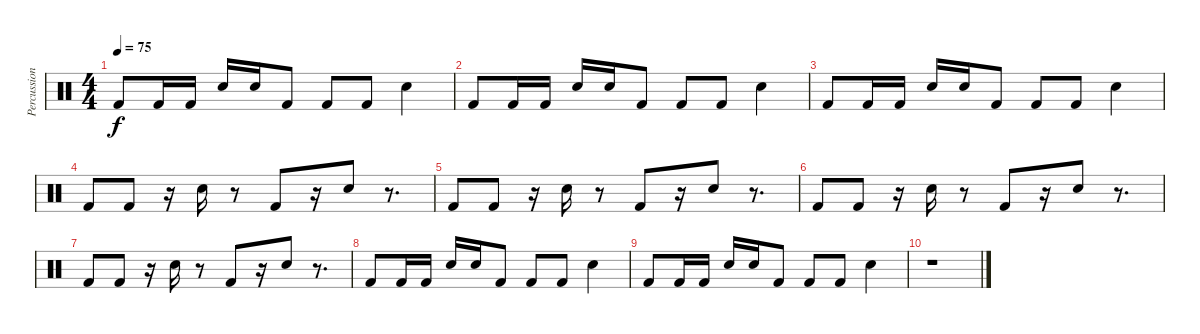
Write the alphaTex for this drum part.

\track ("Percussions" "Percussion") {instrument percussion}
\staff {score}
\articulation defaults
\ts (4 4)
\tempo 75
\clef neutral
\ks c "Kick (hit) 2".8{dy f} "Kick (hit) 2".16 "Kick (hit) 2".16 "Electric Snare (hit)".16 "Electric Snare (hit)".16 "Kick (hit) 2".8 "Kick (hit) 2".8 "Kick (hit) 2".8 "Electric Snare (hit)".4
|
"Kick (hit) 2".8 "Kick (hit) 2".16 "Kick (hit) 2".16 "Electric Snare (hit)".16 "Electric Snare (hit)".16 "Kick (hit) 2".8 "Kick (hit) 2".8 "Kick (hit) 2".8 "Electric Snare (hit)".4 |
"Kick (hit) 2".8 "Kick (hit) 2".16 "Kick (hit) 2".16 "Electric Snare (hit)".16 "Electric Snare (hit)".16 "Kick (hit) 2".8 "Kick (hit) 2".8 "Kick (hit) 2".8 "Electric Snare (hit)".4 |
"Kick (hit) 2".8 "Kick (hit) 2".8 r.16 "Electric Snare (hit)".16 r.8 "Kick (hit) 2".8 r.16 "Electric Snare (hit)".8 r.8{d} |
"Kick (hit) 2".8 "Kick (hit) 2".8 r.16 "Electric Snare (hit)".16 r.8 "Kick (hit) 2".8 r.16 "Electric Snare (hit)".8 r.8{d} |
"Kick (hit) 2".8 "Kick (hit) 2".8 r.16 "Electric Snare (hit)".16 r.8 "Kick (hit) 2".8 r.16 "Electric Snare (hit)".8 r.8{d} |
"Kick (hit) 2".8 "Kick (hit) 2".8 r.16 "Electric Snare (hit)".16 r.8 "Kick (hit) 2".8 r.16 "Electric Snare (hit)".8 r.8{d} |
"Kick (hit) 2".8 "Kick (hit) 2".16 "Kick (hit) 2".16 "Electric Snare (hit)".16 "Electric Snare (hit)".16 "Kick (hit) 2".8 "Kick (hit) 2".8 "Kick (hit) 2".8 "Electric Snare (hit)".4 |
"Kick (hit) 2".8 "Kick (hit) 2".16 "Kick (hit) 2".16 "Electric Snare (hit)".16 "Electric Snare (hit)".16 "Kick (hit) 2".8 "Kick (hit) 2".8 "Kick (hit) 2".8 "Electric Snare (hit)".4 |
r.1
